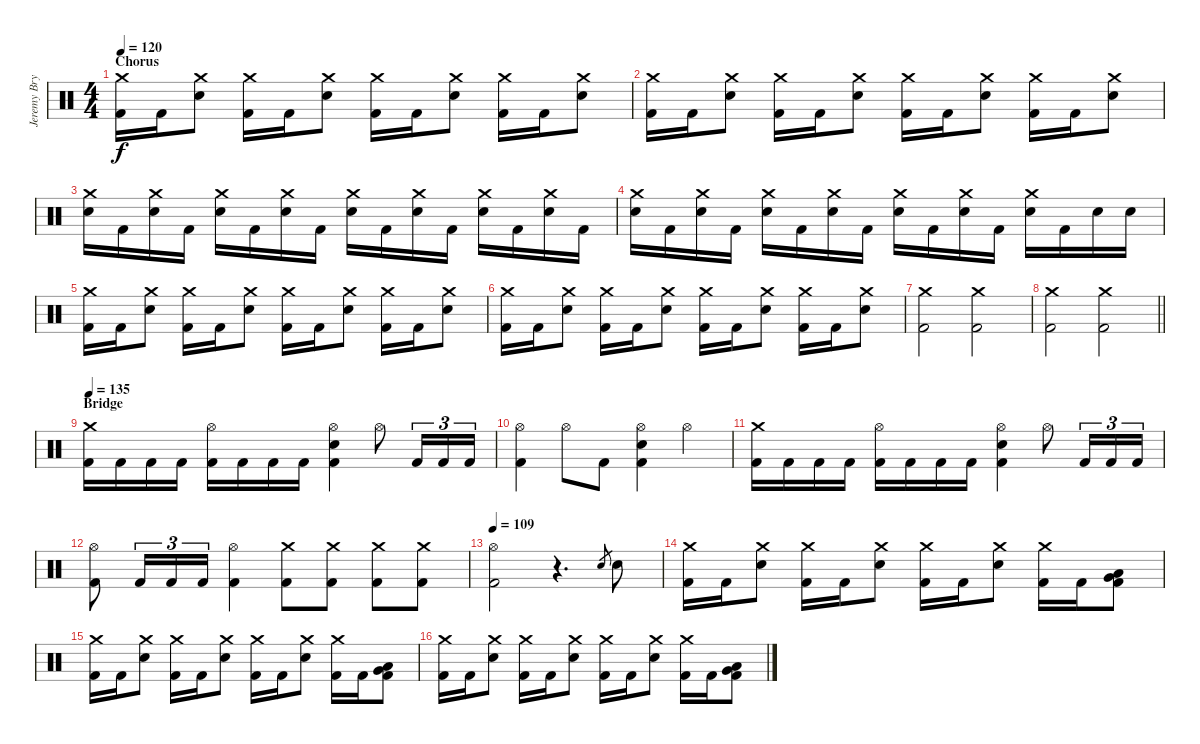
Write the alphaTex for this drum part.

\track ("Jeremy Bryan - Drums" "Jeremy Bry") {instrument percussion}
\staff {score}
\articulation defaults
\ts (4 4)
\section ("" "Chorus")
\tempo 120
\clef neutral
\ks c
("Crash medium (hit)" "Kick (hit) 2").16{dy f} "Kick (hit) 2".16 ("Crash medium (hit)" "Electric Snare (hit)").8 ("Crash medium (hit)" "Kick (hit) 2").16 "Kick (hit) 2".16 ("Crash medium (hit)" "Electric Snare (hit)").8 ("Crash medium (hit)" "Kick (hit) 2").16 "Kick (hit) 2".16 ("Crash medium (hit)" "Electric Snare (hit)").8 ("Crash medium (hit)" "Kick (hit) 2").16 "Kick (hit) 2".16 ("Crash medium (hit)" "Electric Snare (hit)").8 |
("Crash medium (hit)" "Kick (hit) 2").16 "Kick (hit) 2".16 ("Crash medium (hit)" "Electric Snare (hit)").8 ("Crash medium (hit)" "Kick (hit) 2").16 "Kick (hit) 2".16 ("Crash medium (hit)" "Electric Snare (hit)").8 ("Crash medium (hit)" "Kick (hit) 2").16 "Kick (hit) 2".16 ("Crash medium (hit)" "Electric Snare (hit)").8 ("Crash medium (hit)" "Kick (hit) 2").16 "Kick (hit) 2".16 ("Crash medium (hit)" "Electric Snare (hit)").8 |
("Crash medium (hit)" "Electric Snare (hit)").16 "Kick (hit) 2".16 ("Crash medium (hit)" "Electric Snare (hit)").16 "Kick (hit) 2".16 ("Crash medium (hit)" "Electric Snare (hit)").16 "Kick (hit) 2".16 ("Crash medium (hit)" "Electric Snare (hit)").16 "Kick (hit) 2".16 ("Crash medium (hit)" "Electric Snare (hit)").16 "Kick (hit) 2".16 ("Crash medium (hit)" "Electric Snare (hit)").16 "Kick (hit) 2".16 ("Crash medium (hit)" "Electric Snare (hit)").16 "Kick (hit) 2".16 ("Crash medium (hit)" "Electric Snare (hit)").16 "Kick (hit) 2".16 |
("Crash medium (hit)" "Electric Snare (hit)").16 "Kick (hit) 2".16 ("Crash medium (hit)" "Electric Snare (hit)").16 "Kick (hit) 2".16 ("Crash medium (hit)" "Electric Snare (hit)").16 "Kick (hit) 2".16 ("Crash medium (hit)" "Electric Snare (hit)").16 "Kick (hit) 2".16 ("Crash medium (hit)" "Electric Snare (hit)").16 "Kick (hit) 2".16 ("Crash medium (hit)" "Electric Snare (hit)").16 "Kick (hit) 2".16 ("Crash medium (hit)" "Electric Snare (hit)").16 "Kick (hit) 2".16 "Electric Snare (hit)".16 "Electric Snare (hit)".16 |
("Crash medium (hit)" "Kick (hit) 2").16 "Kick (hit) 2".16 ("Crash medium (hit)" "Electric Snare (hit)").8 ("Crash medium (hit)" "Kick (hit) 2").16 "Kick (hit) 2".16 ("Crash medium (hit)" "Electric Snare (hit)").8 ("Crash medium (hit)" "Kick (hit) 2").16 "Kick (hit) 2".16 ("Crash medium (hit)" "Electric Snare (hit)").8 ("Crash medium (hit)" "Kick (hit) 2").16 "Kick (hit) 2".16 ("Crash medium (hit)" "Electric Snare (hit)").8 |
("Crash medium (hit)" "Kick (hit) 2").16 "Kick (hit) 2".16 ("Crash medium (hit)" "Electric Snare (hit)").8 ("Crash medium (hit)" "Kick (hit) 2").16 "Kick (hit) 2".16 ("Crash medium (hit)" "Electric Snare (hit)").8 ("Crash medium (hit)" "Kick (hit) 2").16 "Kick (hit) 2".16 ("Crash medium (hit)" "Electric Snare (hit)").8 ("Crash medium (hit)" "Kick (hit) 2").16 "Kick (hit) 2".16 ("Crash medium (hit)" "Electric Snare (hit)").8 |
("Crash medium (hit)" "Kick (hit) 2").2 ("Crash medium (hit)" "Kick (hit) 2").2 |
\barLineRight lightlight
("Crash medium (hit)" "Kick (hit) 2").2 ("Crash medium (hit)" "Kick (hit) 2").2 |
\section ("" "Bridge")
\tempo 135
("Crash medium (hit)" "Kick (hit) 2").16 "Kick (hit) 2".16 "Kick (hit) 2".16 "Kick (hit) 2".16 ("Hi-Hat (open)" "Kick (hit) 2").16 "Kick (hit) 2".16 "Kick (hit) 2".16 "Kick (hit) 2".16 ("Hi-Hat (open)" "Electric Snare (hit)" "Kick (hit) 2").4 "Hi-Hat (open)".8 "Kick (hit) 2".16{tu (3 2)} "Kick (hit) 2".16{tu (3 2)} "Kick (hit) 2".16{tu (3 2)} |
("Hi-Hat (open)" "Kick (hit) 2").4 "Hi-Hat (open)".8 "Kick (hit) 2".8 ("Hi-Hat (open)" "Electric Snare (hit)" "Kick (hit) 2").4 "Hi-Hat (open)".4 |
("Crash medium (hit)" "Kick (hit) 2").16 "Kick (hit) 2".16 "Kick (hit) 2".16 "Kick (hit) 2".16 ("Hi-Hat (open)" "Kick (hit) 2").16 "Kick (hit) 2".16 "Kick (hit) 2".16 "Kick (hit) 2".16 ("Hi-Hat (open)" "Electric Snare (hit)" "Kick (hit) 2").4 "Hi-Hat (open)".8 "Kick (hit) 2".16{tu (3 2)} "Kick (hit) 2".16{tu (3 2)} "Kick (hit) 2".16{tu (3 2)} |
("Hi-Hat (open)" "Kick (hit) 2").8 "Kick (hit) 2".16{tu (3 2)} "Kick (hit) 2".16{tu (3 2)} "Kick (hit) 2".16{tu (3 2)} ("Hi-Hat (open)" "Kick (hit) 2").4 ("Crash medium (hit)" "Kick (hit) 2").8 ("Crash medium (hit)" "Kick (hit) 2").8 ("Crash medium (hit)" "Kick (hit) 2").8 ("Crash medium (hit)" "Kick (hit) 2").8 |
\tempo 109
("Hi-Hat (open)" "Kick (hit) 2").2 r.4{d} "Electric Snare (hit)".8{gr} "Electric Snare (hit)".8 |
("Crash medium (hit)" "Kick (hit) 2").16 "Kick (hit) 2".16 ("Crash medium (hit)" "Electric Snare (hit)").8 ("Crash medium (hit)" "Kick (hit) 2").16 "Kick (hit) 2".16 ("Crash medium (hit)" "Electric Snare (hit)").8 ("Crash medium (hit)" "Kick (hit) 2").16 "Kick (hit) 2".16 ("Crash medium (hit)" "Electric Snare (hit)").8 ("Crash medium (hit)" "Kick (hit) 2").16 "Kick (hit) 2".16 ("Very Low Tom (hit)" "Low Floor Tom (hit)" "Kick (hit) 2").8 |
("Crash medium (hit)" "Kick (hit) 2").16 "Kick (hit) 2".16 ("Crash medium (hit)" "Electric Snare (hit)").8 ("Crash medium (hit)" "Kick (hit) 2").16 "Kick (hit) 2".16 ("Crash medium (hit)" "Electric Snare (hit)").8 ("Crash medium (hit)" "Kick (hit) 2").16 "Kick (hit) 2".16 ("Crash medium (hit)" "Electric Snare (hit)").8 ("Crash medium (hit)" "Kick (hit) 2").16 "Kick (hit) 2".16 ("Very Low Tom (hit)" "Low Floor Tom (hit)" "Kick (hit) 2").8 |
("Crash medium (hit)" "Kick (hit) 2").16 "Kick (hit) 2".16 ("Crash medium (hit)" "Electric Snare (hit)").8 ("Crash medium (hit)" "Kick (hit) 2").16 "Kick (hit) 2".16 ("Crash medium (hit)" "Electric Snare (hit)").8 ("Crash medium (hit)" "Kick (hit) 2").16 "Kick (hit) 2".16 ("Crash medium (hit)" "Electric Snare (hit)").8 ("Crash medium (hit)" "Kick (hit) 2").16 "Kick (hit) 2".16 ("Very Low Tom (hit)" "Low Floor Tom (hit)" "Kick (hit) 2").8
